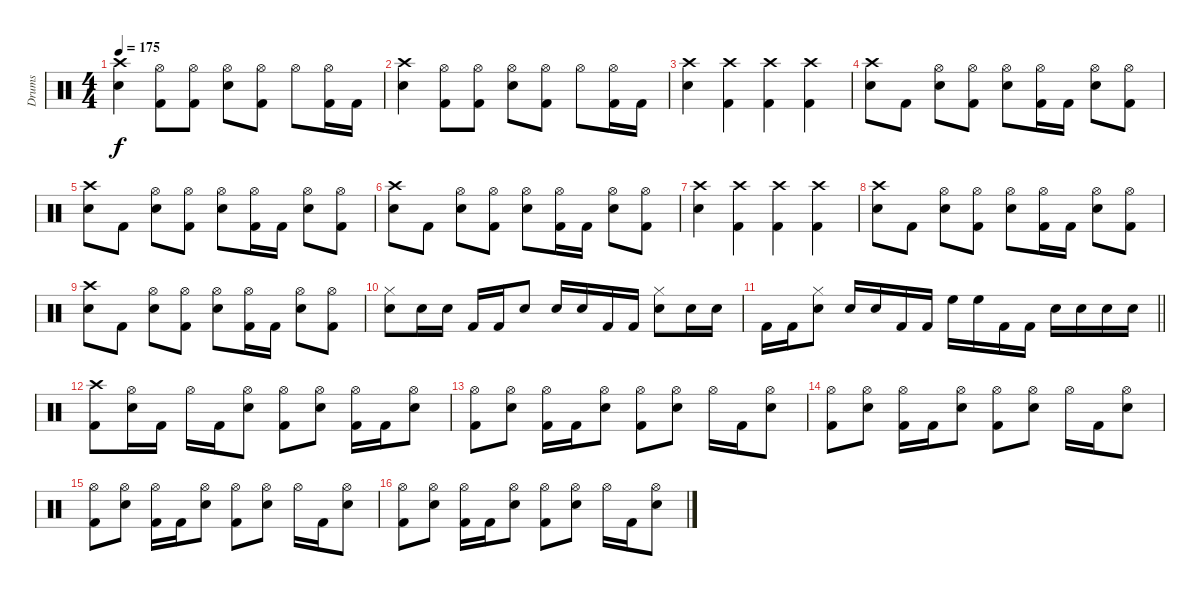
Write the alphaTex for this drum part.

\track ("Drums" "Drums") {instrument percussion}
\staff {score}
\articulation defaults
\ts (4 4)
\tempo 175
\clef neutral
\ks c
("Crash high (hit)" "Snare (hit) 2").4{dy f} ("Hi-Hat (open)" "Kick (hit) 2").8 ("Hi-Hat (open)" "Kick (hit) 2").8 ("Hi-Hat (open)" "Snare (hit) 2").8 ("Hi-Hat (open)" "Kick (hit) 2").8 "Hi-Hat (open)".8 ("Hi-Hat (open)" "Kick (hit) 2").16 "Kick (hit) 2".16 |
("Crash high (hit)" "Snare (hit) 2").4 ("Hi-Hat (open)" "Kick (hit) 2").8 ("Hi-Hat (open)" "Kick (hit) 2").8 ("Hi-Hat (open)" "Snare (hit) 2").8 ("Hi-Hat (open)" "Kick (hit) 2").8 "Hi-Hat (open)".8 ("Hi-Hat (open)" "Kick (hit) 2").16 "Kick (hit) 2".16 |
("Crash high (hit)" "Snare (hit) 2").4 ("Crash high (hit)" "Kick (hit) 2").4 ("Crash high (hit)" "Kick (hit) 2").4 ("Crash high (hit)" "Kick (hit) 2").4 |
("Crash high (hit)" "Snare (hit) 2").8 "Kick (hit) 2".8 ("Hi-Hat (open)" "Snare (hit) 2").8 ("Hi-Hat (open)" "Kick (hit) 2").8 ("Hi-Hat (open)" "Snare (hit) 2").8 ("Hi-Hat (open)" "Kick (hit) 2").16 "Kick (hit) 2".16 ("Hi-Hat (open)" "Snare (hit) 2").8 ("Hi-Hat (open)" "Kick (hit) 2").8 |
("Crash high (hit)" "Snare (hit) 2").8 "Kick (hit) 2".8 ("Hi-Hat (open)" "Snare (hit) 2").8 ("Hi-Hat (open)" "Kick (hit) 2").8 ("Hi-Hat (open)" "Snare (hit) 2").8 ("Hi-Hat (open)" "Kick (hit) 2").16 "Kick (hit) 2".16 ("Hi-Hat (open)" "Snare (hit) 2").8 ("Hi-Hat (open)" "Kick (hit) 2").8 |
("Crash high (hit)" "Snare (hit) 2").8 "Kick (hit) 2".8 ("Hi-Hat (open)" "Snare (hit) 2").8 ("Hi-Hat (open)" "Kick (hit) 2").8 ("Hi-Hat (open)" "Snare (hit) 2").8 ("Hi-Hat (open)" "Kick (hit) 2").16 "Kick (hit) 2".16 ("Hi-Hat (open)" "Snare (hit) 2").8 ("Hi-Hat (open)" "Kick (hit) 2").8 |
("Crash high (hit)" "Snare (hit) 2").4 ("Crash high (hit)" "Kick (hit) 2").4 ("Crash high (hit)" "Kick (hit) 2").4 ("Crash high (hit)" "Kick (hit) 2").4 |
("Crash high (hit)" "Snare (hit) 2").8 "Kick (hit) 2".8 ("Hi-Hat (open)" "Snare (hit) 2").8 ("Hi-Hat (open)" "Kick (hit) 2").8 ("Hi-Hat (open)" "Snare (hit) 2").8 ("Hi-Hat (open)" "Kick (hit) 2").16 "Kick (hit) 2".16 ("Hi-Hat (open)" "Snare (hit) 2").8 ("Hi-Hat (open)" "Kick (hit) 2").8 |
("Crash high (hit)" "Snare (hit) 2").8 "Kick (hit) 2".8 ("Hi-Hat (open)" "Snare (hit) 2").8 ("Hi-Hat (open)" "Kick (hit) 2").8 ("Hi-Hat (open)" "Snare (hit) 2").8 ("Hi-Hat (open)" "Kick (hit) 2").16 "Kick (hit) 2".16 ("Hi-Hat (open)" "Snare (hit) 2").8 ("Hi-Hat (open)" "Kick (hit) 2").8 |
("Hi-Hat (closed)" "Snare (hit) 2").8 "Snare (hit) 2".16 "Snare (hit) 2".16 "Kick (hit) 2".16 "Kick (hit) 2".16 "Snare (hit) 2".8 "Snare (hit) 2".16 "Snare (hit) 2".16 "Kick (hit) 2".16 "Kick (hit) 2".16 ("Hi-Hat (closed)" "Snare (hit) 2").8 "Snare (hit) 2".16 "Snare (hit) 2".16 |
\barLineRight lightlight "Kick (hit) 2".16 "Kick (hit) 2".16
("Hi-Hat (closed)" "Snare (hit) 2").8 "Snare (hit) 2".16 "Snare (hit) 2".16 "Kick (hit) 2".16 "Kick (hit) 2".16 "High Floor Tom (hit)".16 "High Floor Tom (hit)".16 "Kick (hit) 2".16 "Kick (hit) 2".16 "Snare (hit) 2".16 "Snare (hit) 2".16 "Snare (hit) 2".16 "Snare (hit) 2".16 |
("Crash high (hit)" "Kick (hit) 2").8 ("Hi-Hat (open)" "Snare (hit) 2").16 "Kick (hit) 2".16 "Hi-Hat (open)".16 "Kick (hit) 2".16 ("Hi-Hat (open)" "Snare (hit) 2").8 ("Hi-Hat (open)" "Kick (hit) 2").8 ("Hi-Hat (open)" "Snare (hit) 2").8 ("Hi-Hat (open)" "Kick (hit) 2").16 "Kick (hit) 2".16 ("Hi-Hat (open)" "Snare (hit) 2").8 |
("Hi-Hat (open)" "Kick (hit) 2").8 ("Hi-Hat (open)" "Snare (hit) 2").8 ("Hi-Hat (open)" "Kick (hit) 2").16 "Kick (hit) 2".16 ("Hi-Hat (open)" "Snare (hit) 2").8 ("Hi-Hat (open)" "Kick (hit) 2").8 ("Hi-Hat (open)" "Snare (hit) 2").8 "Hi-Hat (open)".16 "Kick (hit) 2".16 ("Hi-Hat (open)" "Snare (hit) 2").8 |
("Hi-Hat (open)" "Kick (hit) 2").8 ("Hi-Hat (open)" "Snare (hit) 2").8 ("Hi-Hat (open)" "Kick (hit) 2").16 "Kick (hit) 2".16 ("Hi-Hat (open)" "Snare (hit) 2").8 ("Hi-Hat (open)" "Kick (hit) 2").8 ("Hi-Hat (open)" "Snare (hit) 2").8 "Hi-Hat (open)".16 "Kick (hit) 2".16 ("Hi-Hat (open)" "Snare (hit) 2").8 |
("Hi-Hat (open)" "Kick (hit) 2").8 ("Hi-Hat (open)" "Snare (hit) 2").8 ("Hi-Hat (open)" "Kick (hit) 2").16 "Kick (hit) 2".16 ("Hi-Hat (open)" "Snare (hit) 2").8 ("Hi-Hat (open)" "Kick (hit) 2").8 ("Hi-Hat (open)" "Snare (hit) 2").8 "Hi-Hat (open)".16 "Kick (hit) 2".16 ("Hi-Hat (open)" "Snare (hit) 2").8 |
("Hi-Hat (open)" "Kick (hit) 2").8 ("Hi-Hat (open)" "Snare (hit) 2").8 ("Hi-Hat (open)" "Kick (hit) 2").16 "Kick (hit) 2".16 ("Hi-Hat (open)" "Snare (hit) 2").8 ("Hi-Hat (open)" "Kick (hit) 2").8 ("Hi-Hat (open)" "Snare (hit) 2").8 "Hi-Hat (open)".16 "Kick (hit) 2".16 ("Hi-Hat (open)" "Snare (hit) 2").8
